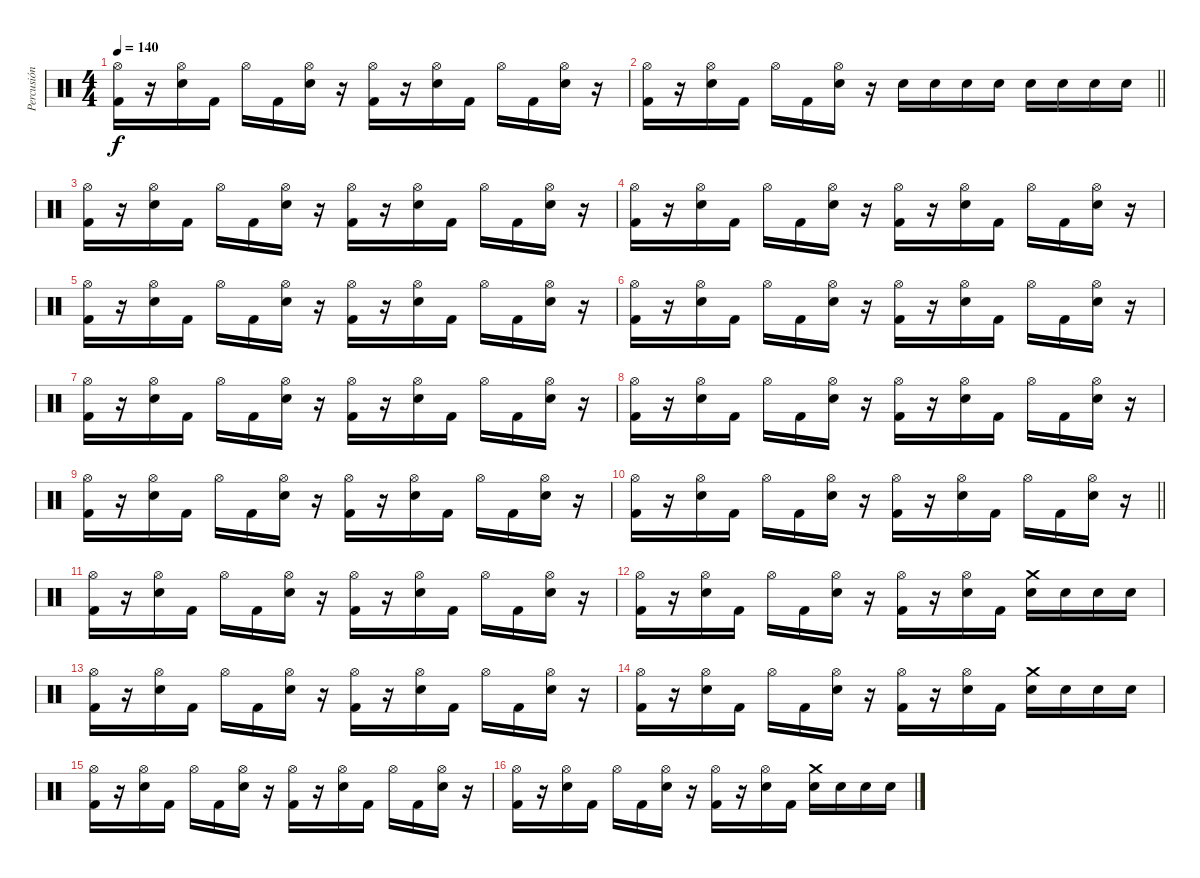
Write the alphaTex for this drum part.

\track ("Percusión" "Percusión") {instrument percussion}
\staff {score}
\articulation defaults
\ts (4 4)
\tempo 140
\clef neutral
\ks c
("Hi-Hat (open)" "Kick (hit) 2").16{dy f} r.16 ("Hi-Hat (open)" "Electric Snare (hit)").16 "Kick (hit) 2".16 "Hi-Hat (open)".16 "Kick (hit) 2".16 ("Hi-Hat (open)" "Electric Snare (hit)").16 r.16 ("Hi-Hat (open)" "Kick (hit) 2").16 r.16 ("Hi-Hat (open)" "Electric Snare (hit)").16 "Kick (hit) 2".16 "Hi-Hat (open)".16 "Kick (hit) 2".16 ("Hi-Hat (open)" "Electric Snare (hit)").16 r.16 |
\barLineRight lightlight
("Hi-Hat (open)" "Kick (hit) 2").16 r.16 ("Hi-Hat (open)" "Electric Snare (hit)").16 "Kick (hit) 2".16 "Hi-Hat (open)".16 "Kick (hit) 2".16 ("Hi-Hat (open)" "Electric Snare (hit)").16 r.16 "Electric Snare (hit)".16 "Electric Snare (hit)".16 "Electric Snare (hit)".16 "Electric Snare (hit)".16 "Electric Snare (hit)".16 "Electric Snare (hit)".16 "Electric Snare (hit)".16 "Electric Snare (hit)".16 |
("Hi-Hat (open)" "Kick (hit) 2").16 r.16 ("Hi-Hat (open)" "Electric Snare (hit)").16 "Kick (hit) 2".16 "Hi-Hat (open)".16 "Kick (hit) 2".16 ("Hi-Hat (open)" "Electric Snare (hit)").16 r.16 ("Hi-Hat (open)" "Kick (hit) 2").16 r.16 ("Hi-Hat (open)" "Electric Snare (hit)").16 "Kick (hit) 2".16 "Hi-Hat (open)".16 "Kick (hit) 2".16 ("Hi-Hat (open)" "Electric Snare (hit)").16 r.16 |
("Hi-Hat (open)" "Kick (hit) 2").16 r.16 ("Hi-Hat (open)" "Electric Snare (hit)").16 "Kick (hit) 2".16 "Hi-Hat (open)".16 "Kick (hit) 2".16 ("Hi-Hat (open)" "Electric Snare (hit)").16 r.16 ("Hi-Hat (open)" "Kick (hit) 2").16 r.16 ("Hi-Hat (open)" "Electric Snare (hit)").16 "Kick (hit) 2".16 "Hi-Hat (open)".16 "Kick (hit) 2".16 ("Hi-Hat (open)" "Electric Snare (hit)").16 r.16 |
("Hi-Hat (open)" "Kick (hit) 2").16 r.16 ("Hi-Hat (open)" "Electric Snare (hit)").16 "Kick (hit) 2".16 "Hi-Hat (open)".16 "Kick (hit) 2".16 ("Hi-Hat (open)" "Electric Snare (hit)").16 r.16 ("Hi-Hat (open)" "Kick (hit) 2").16 r.16 ("Hi-Hat (open)" "Electric Snare (hit)").16 "Kick (hit) 2".16 "Hi-Hat (open)".16 "Kick (hit) 2".16 ("Hi-Hat (open)" "Electric Snare (hit)").16 r.16 |
("Hi-Hat (open)" "Kick (hit) 2").16 r.16 ("Hi-Hat (open)" "Electric Snare (hit)").16 "Kick (hit) 2".16 "Hi-Hat (open)".16 "Kick (hit) 2".16 ("Hi-Hat (open)" "Electric Snare (hit)").16 r.16 ("Hi-Hat (open)" "Kick (hit) 2").16 r.16 ("Hi-Hat (open)" "Electric Snare (hit)").16 "Kick (hit) 2".16 "Hi-Hat (open)".16 "Kick (hit) 2".16 ("Hi-Hat (open)" "Electric Snare (hit)").16 r.16 |
("Hi-Hat (open)" "Kick (hit) 2").16 r.16 ("Hi-Hat (open)" "Electric Snare (hit)").16 "Kick (hit) 2".16 "Hi-Hat (open)".16 "Kick (hit) 2".16 ("Hi-Hat (open)" "Electric Snare (hit)").16 r.16 ("Hi-Hat (open)" "Kick (hit) 2").16 r.16 ("Hi-Hat (open)" "Electric Snare (hit)").16 "Kick (hit) 2".16 "Hi-Hat (open)".16 "Kick (hit) 2".16 ("Hi-Hat (open)" "Electric Snare (hit)").16 r.16 |
("Hi-Hat (open)" "Kick (hit) 2").16 r.16 ("Hi-Hat (open)" "Electric Snare (hit)").16 "Kick (hit) 2".16 "Hi-Hat (open)".16 "Kick (hit) 2".16 ("Hi-Hat (open)" "Electric Snare (hit)").16 r.16 ("Hi-Hat (open)" "Kick (hit) 2").16 r.16 ("Hi-Hat (open)" "Electric Snare (hit)").16 "Kick (hit) 2".16 "Hi-Hat (open)".16 "Kick (hit) 2".16 ("Hi-Hat (open)" "Electric Snare (hit)").16 r.16 |
("Hi-Hat (open)" "Kick (hit) 2").16 r.16 ("Hi-Hat (open)" "Electric Snare (hit)").16 "Kick (hit) 2".16 "Hi-Hat (open)".16 "Kick (hit) 2".16 ("Hi-Hat (open)" "Electric Snare (hit)").16 r.16 ("Hi-Hat (open)" "Kick (hit) 2").16 r.16 ("Hi-Hat (open)" "Electric Snare (hit)").16 "Kick (hit) 2".16 "Hi-Hat (open)".16 "Kick (hit) 2".16 ("Hi-Hat (open)" "Electric Snare (hit)").16 r.16 |
\barLineRight lightlight
("Hi-Hat (open)" "Kick (hit) 2").16 r.16 ("Hi-Hat (open)" "Electric Snare (hit)").16 "Kick (hit) 2".16 "Hi-Hat (open)".16 "Kick (hit) 2".16 ("Hi-Hat (open)" "Electric Snare (hit)").16 r.16 ("Hi-Hat (open)" "Kick (hit) 2").16 r.16 ("Hi-Hat (open)" "Electric Snare (hit)").16 "Kick (hit) 2".16 "Hi-Hat (open)".16 "Kick (hit) 2".16 ("Hi-Hat (open)" "Electric Snare (hit)").16 r.16 |
("Hi-Hat (open)" "Kick (hit) 2").16 r.16 ("Hi-Hat (open)" "Electric Snare (hit)").16 "Kick (hit) 2".16 "Hi-Hat (open)".16 "Kick (hit) 2".16 ("Hi-Hat (open)" "Electric Snare (hit)").16 r.16 ("Hi-Hat (open)" "Kick (hit) 2").16 r.16 ("Hi-Hat (open)" "Electric Snare (hit)").16 "Kick (hit) 2".16 "Hi-Hat (open)".16 "Kick (hit) 2".16 ("Hi-Hat (open)" "Electric Snare (hit)").16 r.16 |
("Hi-Hat (open)" "Kick (hit) 2").16 r.16 ("Hi-Hat (open)" "Electric Snare (hit)").16 "Kick (hit) 2".16 "Hi-Hat (open)".16 "Kick (hit) 2".16 ("Hi-Hat (open)" "Electric Snare (hit)").16 r.16 ("Hi-Hat (open)" "Kick (hit) 2").16 r.16 ("Hi-Hat (open)" "Electric Snare (hit)").16 "Kick (hit) 2".16 ("Crash medium (hit)" "Electric Snare (hit)").16 "Electric Snare (hit)".16 "Electric Snare (hit)".16 "Electric Snare (hit)".16 |
("Hi-Hat (open)" "Kick (hit) 2").16 r.16 ("Hi-Hat (open)" "Electric Snare (hit)").16 "Kick (hit) 2".16 "Hi-Hat (open)".16 "Kick (hit) 2".16 ("Hi-Hat (open)" "Electric Snare (hit)").16 r.16 ("Hi-Hat (open)" "Kick (hit) 2").16 r.16 ("Hi-Hat (open)" "Electric Snare (hit)").16 "Kick (hit) 2".16 "Hi-Hat (open)".16 "Kick (hit) 2".16 ("Hi-Hat (open)" "Electric Snare (hit)").16 r.16 |
("Hi-Hat (open)" "Kick (hit) 2").16 r.16 ("Hi-Hat (open)" "Electric Snare (hit)").16 "Kick (hit) 2".16 "Hi-Hat (open)".16 "Kick (hit) 2".16 ("Hi-Hat (open)" "Electric Snare (hit)").16 r.16 ("Hi-Hat (open)" "Kick (hit) 2").16 r.16 ("Hi-Hat (open)" "Electric Snare (hit)").16 "Kick (hit) 2".16 ("Crash medium (hit)" "Electric Snare (hit)").16 "Electric Snare (hit)".16 "Electric Snare (hit)".16 "Electric Snare (hit)".16 |
("Hi-Hat (open)" "Kick (hit) 2").16 r.16 ("Hi-Hat (open)" "Electric Snare (hit)").16 "Kick (hit) 2".16 "Hi-Hat (open)".16 "Kick (hit) 2".16 ("Hi-Hat (open)" "Electric Snare (hit)").16 r.16 ("Hi-Hat (open)" "Kick (hit) 2").16 r.16 ("Hi-Hat (open)" "Electric Snare (hit)").16 "Kick (hit) 2".16 "Hi-Hat (open)".16 "Kick (hit) 2".16 ("Hi-Hat (open)" "Electric Snare (hit)").16 r.16 |
("Hi-Hat (open)" "Kick (hit) 2").16 r.16 ("Hi-Hat (open)" "Electric Snare (hit)").16 "Kick (hit) 2".16 "Hi-Hat (open)".16 "Kick (hit) 2".16 ("Hi-Hat (open)" "Electric Snare (hit)").16 r.16 ("Hi-Hat (open)" "Kick (hit) 2").16 r.16 ("Hi-Hat (open)" "Electric Snare (hit)").16 "Kick (hit) 2".16 ("Crash medium (hit)" "Electric Snare (hit)").16 "Electric Snare (hit)".16 "Electric Snare (hit)".16 "Electric Snare (hit)".16
